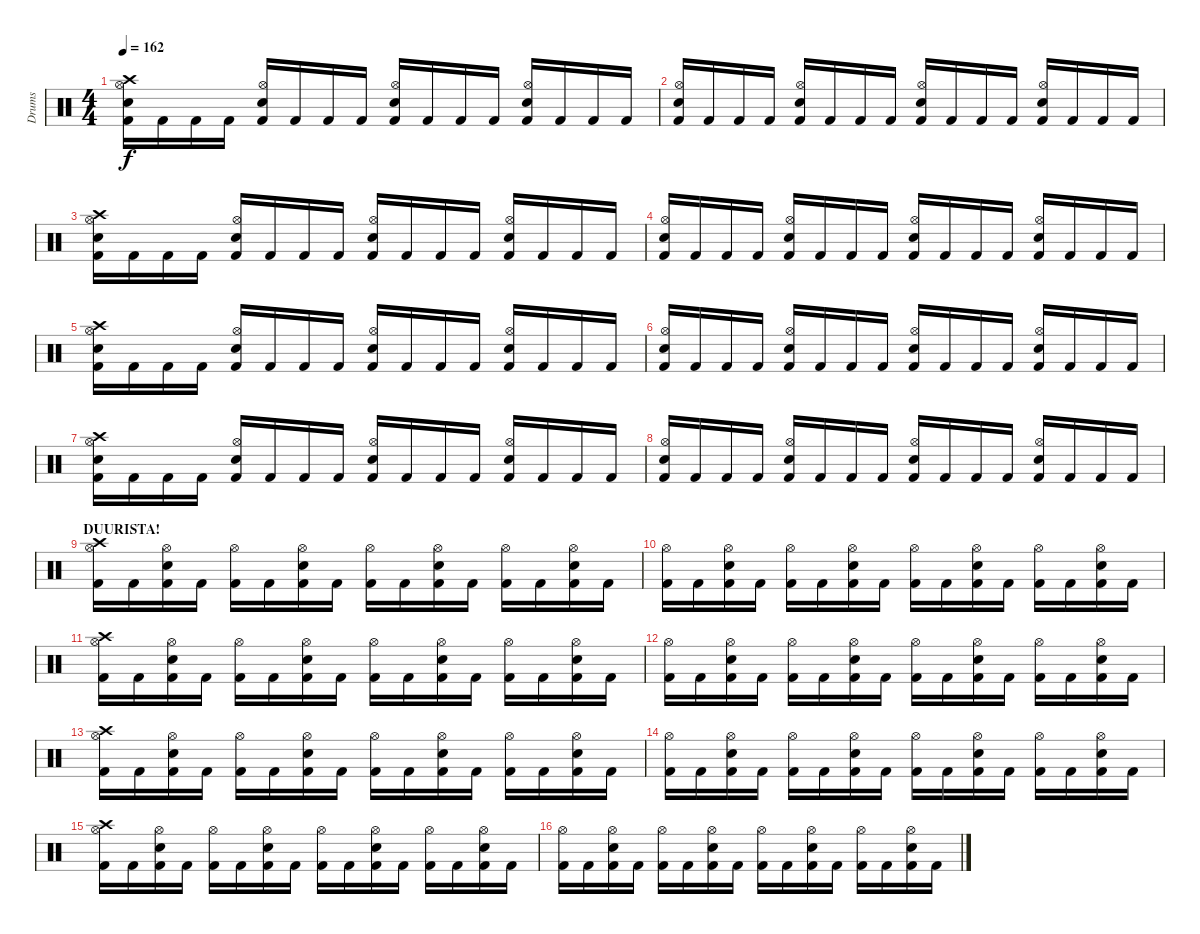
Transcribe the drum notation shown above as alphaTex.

\track ("Drums" "Drums") {instrument percussion}
\staff {score}
\articulation defaults
\ts (4 4)
\tempo 162
\clef neutral
\ks c
("Crash high (hit)" "Electric Snare (hit)" "Hi-Hat (open)" "Kick (hit) 2").16{dy f} "Kick (hit) 2".16 "Kick (hit) 2".16 "Kick (hit) 2".16 ("Electric Snare (hit)" "Hi-Hat (open)" "Kick (hit) 2").16 "Kick (hit) 2".16 "Kick (hit) 2".16 "Kick (hit) 2".16 ("Electric Snare (hit)" "Hi-Hat (open)" "Kick (hit) 2").16 "Kick (hit) 2".16 "Kick (hit) 2".16 "Kick (hit) 2".16 ("Electric Snare (hit)" "Hi-Hat (open)" "Kick (hit) 2").16 "Kick (hit) 2".16 "Kick (hit) 2".16 "Kick (hit) 2".16 |
("Electric Snare (hit)" "Hi-Hat (open)" "Kick (hit) 2").16 "Kick (hit) 2".16 "Kick (hit) 2".16 "Kick (hit) 2".16 ("Electric Snare (hit)" "Hi-Hat (open)" "Kick (hit) 2").16 "Kick (hit) 2".16 "Kick (hit) 2".16 "Kick (hit) 2".16 ("Electric Snare (hit)" "Hi-Hat (open)" "Kick (hit) 2").16 "Kick (hit) 2".16 "Kick (hit) 2".16 "Kick (hit) 2".16 ("Electric Snare (hit)" "Hi-Hat (open)" "Kick (hit) 2").16 "Kick (hit) 2".16 "Kick (hit) 2".16 "Kick (hit) 2".16 |
("Crash high (hit)" "Electric Snare (hit)" "Hi-Hat (open)" "Kick (hit) 2").16 "Kick (hit) 2".16 "Kick (hit) 2".16 "Kick (hit) 2".16 ("Electric Snare (hit)" "Hi-Hat (open)" "Kick (hit) 2").16 "Kick (hit) 2".16 "Kick (hit) 2".16 "Kick (hit) 2".16 ("Electric Snare (hit)" "Hi-Hat (open)" "Kick (hit) 2").16 "Kick (hit) 2".16 "Kick (hit) 2".16 "Kick (hit) 2".16 ("Electric Snare (hit)" "Hi-Hat (open)" "Kick (hit) 2").16 "Kick (hit) 2".16 "Kick (hit) 2".16 "Kick (hit) 2".16 |
("Electric Snare (hit)" "Hi-Hat (open)" "Kick (hit) 2").16 "Kick (hit) 2".16 "Kick (hit) 2".16 "Kick (hit) 2".16 ("Electric Snare (hit)" "Hi-Hat (open)" "Kick (hit) 2").16 "Kick (hit) 2".16 "Kick (hit) 2".16 "Kick (hit) 2".16 ("Electric Snare (hit)" "Hi-Hat (open)" "Kick (hit) 2").16 "Kick (hit) 2".16 "Kick (hit) 2".16 "Kick (hit) 2".16 ("Electric Snare (hit)" "Hi-Hat (open)" "Kick (hit) 2").16 "Kick (hit) 2".16 "Kick (hit) 2".16 "Kick (hit) 2".16 |
("Crash high (hit)" "Electric Snare (hit)" "Hi-Hat (open)" "Kick (hit) 2").16 "Kick (hit) 2".16 "Kick (hit) 2".16 "Kick (hit) 2".16 ("Electric Snare (hit)" "Hi-Hat (open)" "Kick (hit) 2").16 "Kick (hit) 2".16 "Kick (hit) 2".16 "Kick (hit) 2".16 ("Electric Snare (hit)" "Hi-Hat (open)" "Kick (hit) 2").16 "Kick (hit) 2".16 "Kick (hit) 2".16 "Kick (hit) 2".16 ("Electric Snare (hit)" "Hi-Hat (open)" "Kick (hit) 2").16 "Kick (hit) 2".16 "Kick (hit) 2".16 "Kick (hit) 2".16 |
("Electric Snare (hit)" "Hi-Hat (open)" "Kick (hit) 2").16 "Kick (hit) 2".16 "Kick (hit) 2".16 "Kick (hit) 2".16 ("Electric Snare (hit)" "Hi-Hat (open)" "Kick (hit) 2").16 "Kick (hit) 2".16 "Kick (hit) 2".16 "Kick (hit) 2".16 ("Electric Snare (hit)" "Hi-Hat (open)" "Kick (hit) 2").16 "Kick (hit) 2".16 "Kick (hit) 2".16 "Kick (hit) 2".16 ("Electric Snare (hit)" "Hi-Hat (open)" "Kick (hit) 2").16 "Kick (hit) 2".16 "Kick (hit) 2".16 "Kick (hit) 2".16 |
("Crash high (hit)" "Electric Snare (hit)" "Hi-Hat (open)" "Kick (hit) 2").16 "Kick (hit) 2".16 "Kick (hit) 2".16 "Kick (hit) 2".16 ("Electric Snare (hit)" "Hi-Hat (open)" "Kick (hit) 2").16 "Kick (hit) 2".16 "Kick (hit) 2".16 "Kick (hit) 2".16 ("Electric Snare (hit)" "Hi-Hat (open)" "Kick (hit) 2").16 "Kick (hit) 2".16 "Kick (hit) 2".16 "Kick (hit) 2".16 ("Electric Snare (hit)" "Hi-Hat (open)" "Kick (hit) 2").16 "Kick (hit) 2".16 "Kick (hit) 2".16 "Kick (hit) 2".16 |
("Electric Snare (hit)" "Hi-Hat (open)" "Kick (hit) 2").16 "Kick (hit) 2".16 "Kick (hit) 2".16 "Kick (hit) 2".16 ("Electric Snare (hit)" "Hi-Hat (open)" "Kick (hit) 2").16 "Kick (hit) 2".16 "Kick (hit) 2".16 "Kick (hit) 2".16 ("Electric Snare (hit)" "Hi-Hat (open)" "Kick (hit) 2").16 "Kick (hit) 2".16 "Kick (hit) 2".16 "Kick (hit) 2".16 ("Electric Snare (hit)" "Hi-Hat (open)" "Kick (hit) 2").16 "Kick (hit) 2".16 "Kick (hit) 2".16 "Kick (hit) 2".16 |
\section ("" "DUURISTA!")
("Crash high (hit)" "Hi-Hat (open)" "Kick (hit) 2").16 "Kick (hit) 2".16 ("Electric Snare (hit)" "Hi-Hat (open)" "Kick (hit) 2").16 "Kick (hit) 2".16 ("Hi-Hat (open)" "Kick (hit) 2").16 "Kick (hit) 2".16 ("Electric Snare (hit)" "Hi-Hat (open)" "Kick (hit) 2").16 "Kick (hit) 2".16 ("Hi-Hat (open)" "Kick (hit) 2").16 "Kick (hit) 2".16 ("Electric Snare (hit)" "Hi-Hat (open)" "Kick (hit) 2").16 "Kick (hit) 2".16 ("Hi-Hat (open)" "Kick (hit) 2").16 "Kick (hit) 2".16 ("Electric Snare (hit)" "Hi-Hat (open)" "Kick (hit) 2").16 "Kick (hit) 2".16 |
("Hi-Hat (open)" "Kick (hit) 2").16 "Kick (hit) 2".16 ("Electric Snare (hit)" "Hi-Hat (open)" "Kick (hit) 2").16 "Kick (hit) 2".16 ("Hi-Hat (open)" "Kick (hit) 2").16 "Kick (hit) 2".16 ("Electric Snare (hit)" "Hi-Hat (open)" "Kick (hit) 2").16 "Kick (hit) 2".16 ("Hi-Hat (open)" "Kick (hit) 2").16 "Kick (hit) 2".16 ("Electric Snare (hit)" "Hi-Hat (open)" "Kick (hit) 2").16 "Kick (hit) 2".16 ("Hi-Hat (open)" "Kick (hit) 2").16 "Kick (hit) 2".16 ("Electric Snare (hit)" "Hi-Hat (open)" "Kick (hit) 2").16 "Kick (hit) 2".16 |
("Crash high (hit)" "Hi-Hat (open)" "Kick (hit) 2").16 "Kick (hit) 2".16 ("Electric Snare (hit)" "Hi-Hat (open)" "Kick (hit) 2").16 "Kick (hit) 2".16 ("Hi-Hat (open)" "Kick (hit) 2").16 "Kick (hit) 2".16 ("Electric Snare (hit)" "Hi-Hat (open)" "Kick (hit) 2").16 "Kick (hit) 2".16 ("Hi-Hat (open)" "Kick (hit) 2").16 "Kick (hit) 2".16 ("Electric Snare (hit)" "Hi-Hat (open)" "Kick (hit) 2").16 "Kick (hit) 2".16 ("Hi-Hat (open)" "Kick (hit) 2").16 "Kick (hit) 2".16 ("Electric Snare (hit)" "Hi-Hat (open)" "Kick (hit) 2").16 "Kick (hit) 2".16 |
("Hi-Hat (open)" "Kick (hit) 2").16 "Kick (hit) 2".16 ("Electric Snare (hit)" "Hi-Hat (open)" "Kick (hit) 2").16 "Kick (hit) 2".16 ("Hi-Hat (open)" "Kick (hit) 2").16 "Kick (hit) 2".16 ("Electric Snare (hit)" "Hi-Hat (open)" "Kick (hit) 2").16 "Kick (hit) 2".16 ("Hi-Hat (open)" "Kick (hit) 2").16 "Kick (hit) 2".16 ("Electric Snare (hit)" "Hi-Hat (open)" "Kick (hit) 2").16 "Kick (hit) 2".16 ("Hi-Hat (open)" "Kick (hit) 2").16 "Kick (hit) 2".16 ("Electric Snare (hit)" "Hi-Hat (open)" "Kick (hit) 2").16 "Kick (hit) 2".16 |
("Crash high (hit)" "Hi-Hat (open)" "Kick (hit) 2").16 "Kick (hit) 2".16 ("Electric Snare (hit)" "Hi-Hat (open)" "Kick (hit) 2").16 "Kick (hit) 2".16 ("Hi-Hat (open)" "Kick (hit) 2").16 "Kick (hit) 2".16 ("Electric Snare (hit)" "Hi-Hat (open)" "Kick (hit) 2").16 "Kick (hit) 2".16 ("Hi-Hat (open)" "Kick (hit) 2").16 "Kick (hit) 2".16 ("Electric Snare (hit)" "Hi-Hat (open)" "Kick (hit) 2").16 "Kick (hit) 2".16 ("Hi-Hat (open)" "Kick (hit) 2").16 "Kick (hit) 2".16 ("Electric Snare (hit)" "Hi-Hat (open)" "Kick (hit) 2").16 "Kick (hit) 2".16 |
("Hi-Hat (open)" "Kick (hit) 2").16 "Kick (hit) 2".16 ("Electric Snare (hit)" "Hi-Hat (open)" "Kick (hit) 2").16 "Kick (hit) 2".16 ("Hi-Hat (open)" "Kick (hit) 2").16 "Kick (hit) 2".16 ("Electric Snare (hit)" "Hi-Hat (open)" "Kick (hit) 2").16 "Kick (hit) 2".16 ("Hi-Hat (open)" "Kick (hit) 2").16 "Kick (hit) 2".16 ("Electric Snare (hit)" "Hi-Hat (open)" "Kick (hit) 2").16 "Kick (hit) 2".16 ("Hi-Hat (open)" "Kick (hit) 2").16 "Kick (hit) 2".16 ("Electric Snare (hit)" "Hi-Hat (open)" "Kick (hit) 2").16 "Kick (hit) 2".16 |
("Crash high (hit)" "Hi-Hat (open)" "Kick (hit) 2").16 "Kick (hit) 2".16 ("Electric Snare (hit)" "Hi-Hat (open)" "Kick (hit) 2").16 "Kick (hit) 2".16 ("Hi-Hat (open)" "Kick (hit) 2").16 "Kick (hit) 2".16 ("Electric Snare (hit)" "Hi-Hat (open)" "Kick (hit) 2").16 "Kick (hit) 2".16 ("Hi-Hat (open)" "Kick (hit) 2").16 "Kick (hit) 2".16 ("Electric Snare (hit)" "Hi-Hat (open)" "Kick (hit) 2").16 "Kick (hit) 2".16 ("Hi-Hat (open)" "Kick (hit) 2").16 "Kick (hit) 2".16 ("Electric Snare (hit)" "Hi-Hat (open)" "Kick (hit) 2").16 "Kick (hit) 2".16 |
("Hi-Hat (open)" "Kick (hit) 2").16 "Kick (hit) 2".16 ("Electric Snare (hit)" "Hi-Hat (open)" "Kick (hit) 2").16 "Kick (hit) 2".16 ("Hi-Hat (open)" "Kick (hit) 2").16 "Kick (hit) 2".16 ("Electric Snare (hit)" "Hi-Hat (open)" "Kick (hit) 2").16 "Kick (hit) 2".16 ("Hi-Hat (open)" "Kick (hit) 2").16 "Kick (hit) 2".16 ("Electric Snare (hit)" "Hi-Hat (open)" "Kick (hit) 2").16 "Kick (hit) 2".16 ("Hi-Hat (open)" "Kick (hit) 2").16 "Kick (hit) 2".16 ("Electric Snare (hit)" "Hi-Hat (open)" "Kick (hit) 2").16 "Kick (hit) 2".16
